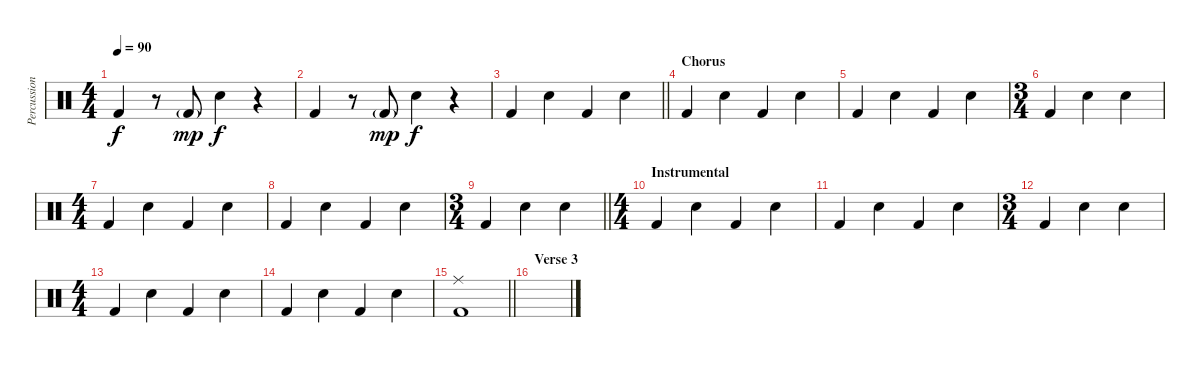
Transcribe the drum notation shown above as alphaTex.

\track ("Percussion" "Percussion") {instrument percussion}
\staff {score}
\articulation defaults
\ts (4 4)
\tempo 90
\clef neutral
\ks c "Kick (hit) 2".4{dy f}
r.8 "Kick (hit) 2"{g}.8{dy mp} "Snare (hit) 2".4{dy f} r.4 |
"Kick (hit) 2".4 r.8 "Kick (hit) 2"{g}.8{dy mp} "Snare (hit) 2".4{dy f} r.4 |
\barLineRight lightlight "Kick (hit) 2".4 "Snare (hit) 2".4 "Kick (hit) 2".4 "Snare (hit) 2".4
|
\section ("" "Chorus")
"Kick (hit) 2".4 "Snare (hit) 2".4 "Kick (hit) 2".4 "Snare (hit) 2".4 |
"Kick (hit) 2".4 "Snare (hit) 2".4 "Kick (hit) 2".4 "Snare (hit) 2".4 |
\ts (3 4)
"Kick (hit) 2".4 "Snare (hit) 2".4 "Snare (hit) 2".4 |
\ts (4 4)
"Kick (hit) 2".4 "Snare (hit) 2".4 "Kick (hit) 2".4 "Snare (hit) 2".4 |
"Kick (hit) 2".4 "Snare (hit) 2".4 "Kick (hit) 2".4 "Snare (hit) 2".4 |
\ts (3 4)
\barLineRight lightlight "Kick (hit) 2".4 "Snare (hit) 2".4 "Snare (hit) 2".4
|
\ts (4 4)
\section ("" "Instrumental")
"Kick (hit) 2".4 "Snare (hit) 2".4 "Kick (hit) 2".4 "Snare (hit) 2".4 |
"Kick (hit) 2".4 "Snare (hit) 2".4 "Kick (hit) 2".4 "Snare (hit) 2".4 |
\ts (3 4)
"Kick (hit) 2".4 "Snare (hit) 2".4 "Snare (hit) 2".4 |
\ts (4 4)
"Kick (hit) 2".4 "Snare (hit) 2".4 "Kick (hit) 2".4 "Snare (hit) 2".4 |
"Kick (hit) 2".4 "Snare (hit) 2".4 "Kick (hit) 2".4 "Snare (hit) 2".4 |
\barLineRight lightlight
("Ride (middle)" "Kick (hit) 2").1 |
\section ("" "Verse 3")
